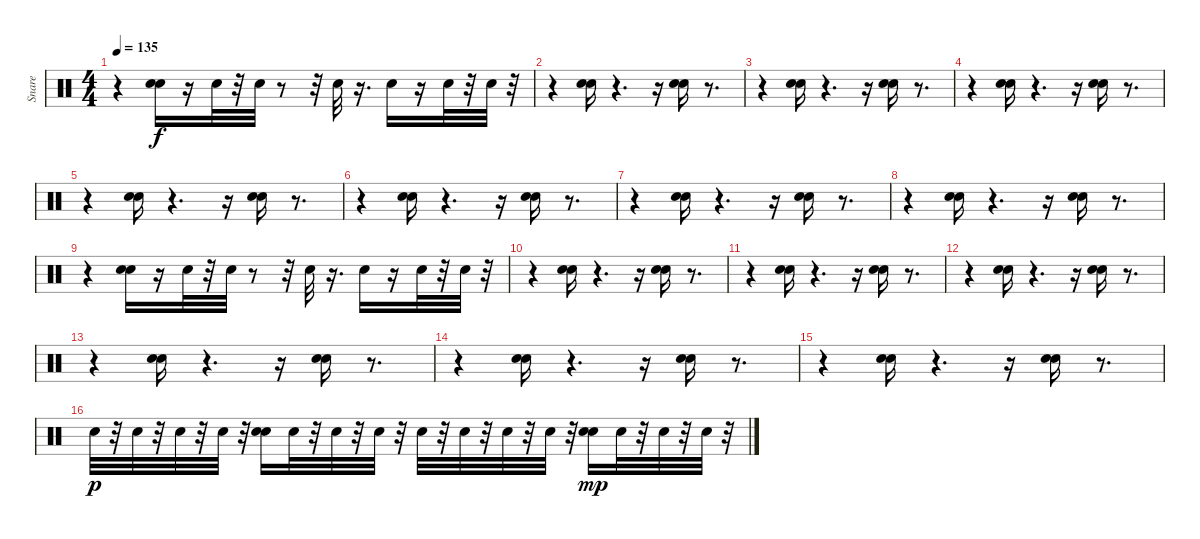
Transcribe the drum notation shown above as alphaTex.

\track ("Snare" "Snare") {instrument percussion}
\staff {score}
\articulation defaults
\ts (4 4)
\tempo 135
\clef neutral
\ks c
r.4{dy f} ("Snare (hit) 2" "Hand Clap (hit)").16 r.16 "Snare (hit) 2".32 r.32 "Snare (hit) 2".32 r.8 r.32 "Snare (hit) 2".32 r.16{d} "Snare (hit) 2".16 r.16 "Snare (hit) 2".32 r.32 "Snare (hit) 2".32 r.32 |
r.4 ("Hand Clap (hit)" "Snare (hit) 2").16 r.4{d} r.16 ("Hand Clap (hit)" "Snare (hit) 2").16 r.8{d} |
r.4 ("Snare (hit) 2" "Hand Clap (hit)").16 r.4{d} r.16 ("Snare (hit) 2" "Hand Clap (hit)").16 r.8{d} |
r.4 ("Hand Clap (hit)" "Snare (hit) 2").16 r.4{d} r.16 ("Hand Clap (hit)" "Snare (hit) 2").16 r.8{d} |
r.4 ("Hand Clap (hit)" "Snare (hit) 2").16 r.4{d} r.16 ("Hand Clap (hit)" "Snare (hit) 2").16 r.8{d} |
r.4 ("Hand Clap (hit)" "Snare (hit) 2").16 r.4{d} r.16 ("Hand Clap (hit)" "Snare (hit) 2").16 r.8{d} |
r.4 ("Snare (hit) 2" "Hand Clap (hit)").16 r.4{d} r.16 ("Snare (hit) 2" "Hand Clap (hit)").16 r.8{d} |
r.4 ("Snare (hit) 2" "Hand Clap (hit)").16 r.4{d} r.16 ("Snare (hit) 2" "Hand Clap (hit)").16 r.8{d} |
r.4 ("Snare (hit) 2" "Hand Clap (hit)").16 r.16 "Snare (hit) 2".32 r.32 "Snare (hit) 2".32 r.8 r.32 "Snare (hit) 2".32 r.16{d} "Snare (hit) 2".16 r.16 "Snare (hit) 2".32 r.32 "Snare (hit) 2".32 r.32 |
r.4 ("Hand Clap (hit)" "Snare (hit) 2").16 r.4{d} r.16 ("Hand Clap (hit)" "Snare (hit) 2").16 r.8{d} |
r.4 ("Snare (hit) 2" "Hand Clap (hit)").16 r.4{d} r.16 ("Snare (hit) 2" "Hand Clap (hit)").16 r.8{d} |
r.4 ("Hand Clap (hit)" "Snare (hit) 2").16 r.4{d} r.16 ("Hand Clap (hit)" "Snare (hit) 2").16 r.8{d} |
r.4 ("Hand Clap (hit)" "Snare (hit) 2").16 r.4{d} r.16 ("Hand Clap (hit)" "Snare (hit) 2").16 r.8{d} |
r.4 ("Hand Clap (hit)" "Snare (hit) 2").16 r.4{d} r.16 ("Hand Clap (hit)" "Snare (hit) 2").16 r.8{d} |
r.4 ("Snare (hit) 2" "Hand Clap (hit)").16 r.4{d} r.16 ("Snare (hit) 2" "Hand Clap (hit)").16 r.8{d} |
"Snare (hit) 2".32{dy p} r.32 "Snare (hit) 2".32 r.32 "Snare (hit) 2".32 r.32 "Snare (hit) 2".32 r.32 ("Hand Clap (hit)" "Snare (hit) 2").16 "Snare (hit) 2".32 r.32 "Snare (hit) 2".32 r.32 "Snare (hit) 2".32 r.32 "Snare (hit) 2".32 r.32 "Snare (hit) 2".32 r.32 "Snare (hit) 2".32 r.32 "Snare (hit) 2".32 r.32 ("Hand Clap (hit)" "Snare (hit) 2").16{dy mp} "Snare (hit) 2".32 r.32 "Snare (hit) 2".32 r.32 "Snare (hit) 2".32 r.32
